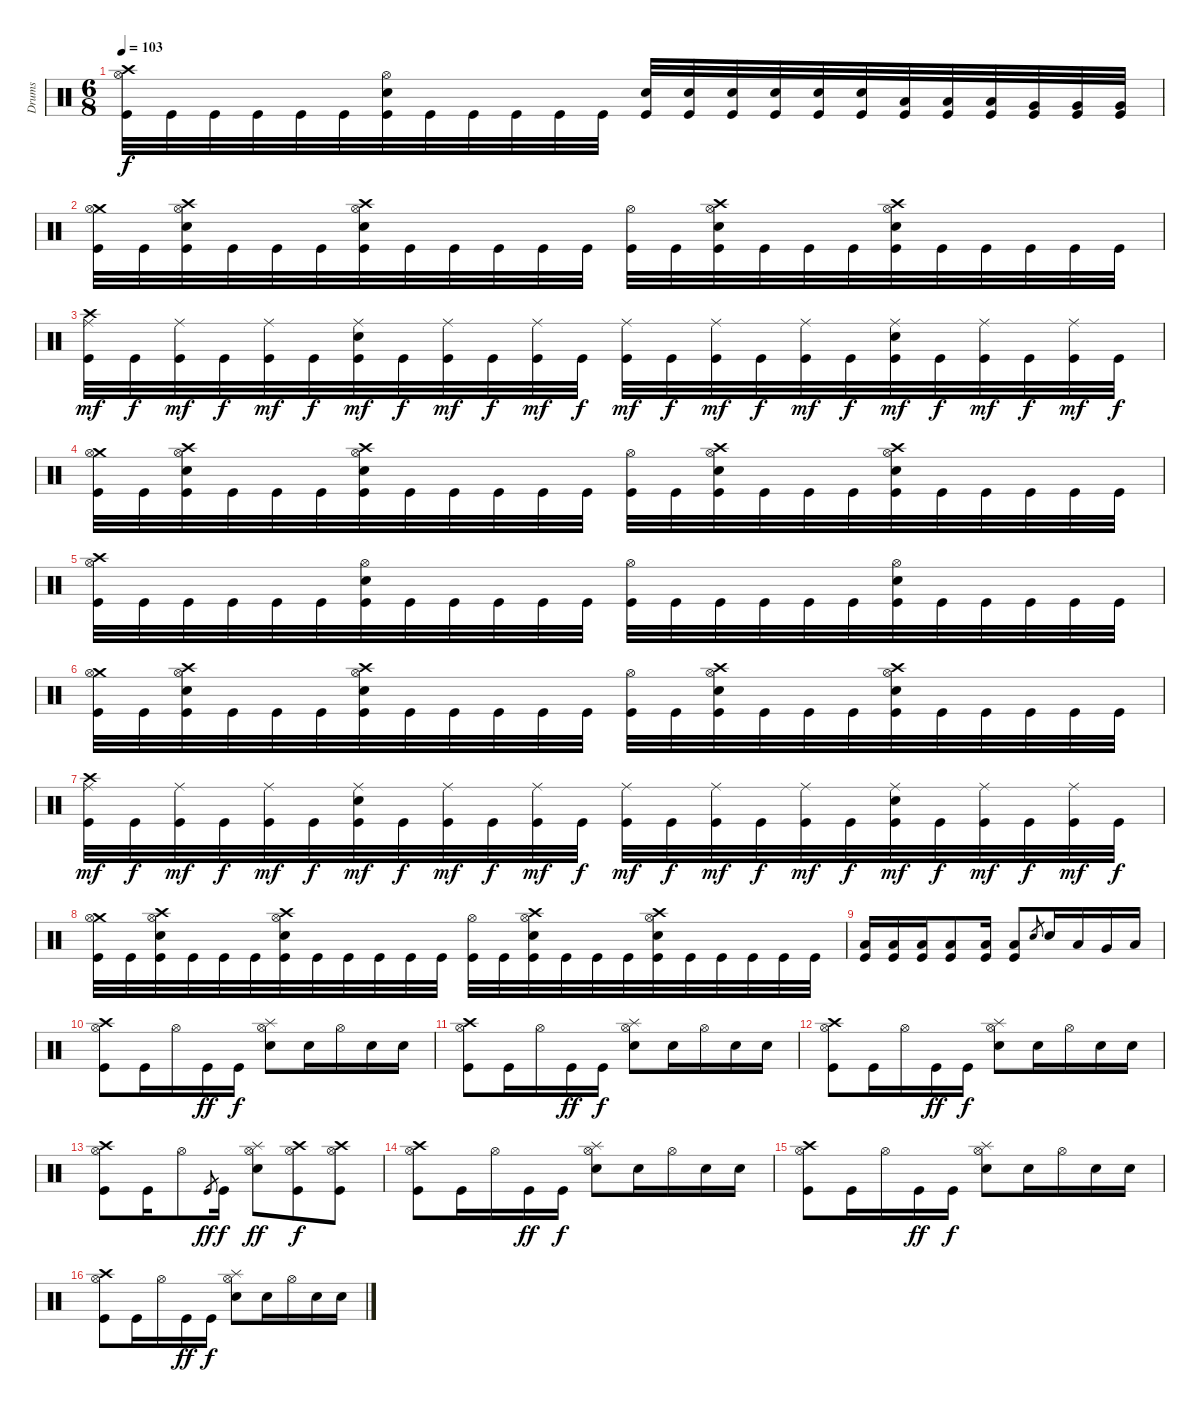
\track ("Drums" "Drums") {instrument percussion}
\staff {score}
\articulation defaults
\ts (6 8)
\tempo 103
\clef neutral
\ks c
("Crash high (hit)" "Hi-Hat (open)" "Kick (hit)").32{dy f} "Kick (hit)".32 "Kick (hit)".32 "Kick (hit)".32 "Kick (hit)".32 "Kick (hit)".32 ("Hi-Hat (open)" "Electric Snare (hit)" "Kick (hit)").32 "Kick (hit)".32 "Kick (hit)".32 "Kick (hit)".32 "Kick (hit)".32 "Kick (hit)".32 ("Electric Snare (hit)" "Kick (hit)").32 ("Electric Snare (hit)" "Kick (hit)").32 ("Electric Snare (hit)" "Kick (hit)").32 ("Electric Snare (hit)" "Kick (hit)").32 ("Electric Snare (hit)" "Kick (hit)").32 ("Electric Snare (hit)" "Kick (hit)").32 ("Low Tom (hit)" "Kick (hit)").32 ("Low Tom (hit)" "Kick (hit)").32 ("Low Tom (hit)" "Kick (hit)").32 ("Very Low Tom (hit)" "Kick (hit)").32 ("Very Low Tom (hit)" "Kick (hit)").32 ("Very Low Tom (hit)" "Kick (hit)").32 |
("Crash medium (hit)" "Hi-Hat (open)" "Kick (hit)").32 "Kick (hit)".32 ("Crash high (hit)" "Hi-Hat (open)" "Electric Snare (hit)" "Kick (hit)").32 "Kick (hit)".32 "Kick (hit)".32 "Kick (hit)".32 ("Crash high (hit)" "Hi-Hat (open)" "Electric Snare (hit)" "Kick (hit)").32 "Kick (hit)".32 "Kick (hit)".32 "Kick (hit)".32 "Kick (hit)".32 "Kick (hit)".32 ("Hi-Hat (open)" "Kick (hit)").32 "Kick (hit)".32 ("Crash high (hit)" "Hi-Hat (open)" "Electric Snare (hit)" "Kick (hit)").32 "Kick (hit)".32 "Kick (hit)".32 "Kick (hit)".32 ("Crash high (hit)" "Hi-Hat (open)" "Electric Snare (hit)" "Kick (hit)").32 "Kick (hit)".32 "Kick (hit)".32 "Kick (hit)".32 "Kick (hit)".32 "Kick (hit)".32 |
("Crash high (hit)" "Ride (middle)" "Kick (hit)").32{dy mf} "Kick (hit)".32{dy f} ("Ride (middle)" "Kick (hit)").32{dy mf} "Kick (hit)".32{dy f} ("Ride (middle)" "Kick (hit)").32{dy mf} "Kick (hit)".32{dy f} ("Ride (middle)" "Electric Snare (hit)" "Kick (hit)").32{dy mf} "Kick (hit)".32{dy f} ("Ride (middle)" "Kick (hit)").32{dy mf} "Kick (hit)".32{dy f} ("Ride (middle)" "Kick (hit)").32{dy mf} "Kick (hit)".32{dy f} ("Ride (middle)" "Kick (hit)").32{dy mf} "Kick (hit)".32{dy f} ("Ride (middle)" "Kick (hit)").32{dy mf} "Kick (hit)".32{dy f} ("Ride (middle)" "Kick (hit)").32{dy mf} "Kick (hit)".32{dy f} ("Ride (middle)" "Electric Snare (hit)" "Kick (hit)").32{dy mf} "Kick (hit)".32{dy f} ("Ride (middle)" "Kick (hit)").32{dy mf} "Kick (hit)".32{dy f} ("Ride (middle)" "Kick (hit)").32{dy mf} "Kick (hit)".32{dy f} |
("Crash medium (hit)" "Hi-Hat (open)" "Kick (hit)").32 "Kick (hit)".32 ("Crash high (hit)" "Hi-Hat (open)" "Electric Snare (hit)" "Kick (hit)").32 "Kick (hit)".32 "Kick (hit)".32 "Kick (hit)".32 ("Crash high (hit)" "Hi-Hat (open)" "Electric Snare (hit)" "Kick (hit)").32 "Kick (hit)".32 "Kick (hit)".32 "Kick (hit)".32 "Kick (hit)".32 "Kick (hit)".32 ("Hi-Hat (open)" "Kick (hit)").32 "Kick (hit)".32 ("Crash high (hit)" "Hi-Hat (open)" "Electric Snare (hit)" "Kick (hit)").32 "Kick (hit)".32 "Kick (hit)".32 "Kick (hit)".32 ("Crash high (hit)" "Hi-Hat (open)" "Electric Snare (hit)" "Kick (hit)").32 "Kick (hit)".32 "Kick (hit)".32 "Kick (hit)".32 "Kick (hit)".32 "Kick (hit)".32 |
("Crash high (hit)" "Hi-Hat (open)" "Kick (hit)").32 "Kick (hit)".32 "Kick (hit)".32 "Kick (hit)".32 "Kick (hit)".32 "Kick (hit)".32 ("Hi-Hat (open)" "Electric Snare (hit)" "Kick (hit)").32 "Kick (hit)".32 "Kick (hit)".32 "Kick (hit)".32 "Kick (hit)".32 "Kick (hit)".32 ("Hi-Hat (open)" "Kick (hit)").32 "Kick (hit)".32 "Kick (hit)".32 "Kick (hit)".32 "Kick (hit)".32 "Kick (hit)".32 ("Hi-Hat (open)" "Electric Snare (hit)" "Kick (hit)").32 "Kick (hit)".32 "Kick (hit)".32 "Kick (hit)".32 "Kick (hit)".32 "Kick (hit)".32 |
("Crash medium (hit)" "Hi-Hat (open)" "Kick (hit)").32 "Kick (hit)".32 ("Crash high (hit)" "Hi-Hat (open)" "Electric Snare (hit)" "Kick (hit)").32 "Kick (hit)".32 "Kick (hit)".32 "Kick (hit)".32 ("Crash high (hit)" "Hi-Hat (open)" "Electric Snare (hit)" "Kick (hit)").32 "Kick (hit)".32 "Kick (hit)".32 "Kick (hit)".32 "Kick (hit)".32 "Kick (hit)".32 ("Hi-Hat (open)" "Kick (hit)").32 "Kick (hit)".32 ("Crash high (hit)" "Hi-Hat (open)" "Electric Snare (hit)" "Kick (hit)").32 "Kick (hit)".32 "Kick (hit)".32 "Kick (hit)".32 ("Crash high (hit)" "Hi-Hat (open)" "Electric Snare (hit)" "Kick (hit)").32 "Kick (hit)".32 "Kick (hit)".32 "Kick (hit)".32 "Kick (hit)".32 "Kick (hit)".32 |
("Crash high (hit)" "Ride (middle)" "Kick (hit)").32{dy mf} "Kick (hit)".32{dy f} ("Ride (middle)" "Kick (hit)").32{dy mf} "Kick (hit)".32{dy f} ("Ride (middle)" "Kick (hit)").32{dy mf} "Kick (hit)".32{dy f} ("Ride (middle)" "Electric Snare (hit)" "Kick (hit)").32{dy mf} "Kick (hit)".32{dy f} ("Ride (middle)" "Kick (hit)").32{dy mf} "Kick (hit)".32{dy f} ("Ride (middle)" "Kick (hit)").32{dy mf} "Kick (hit)".32{dy f} ("Ride (middle)" "Kick (hit)").32{dy mf} "Kick (hit)".32{dy f} ("Ride (middle)" "Kick (hit)").32{dy mf} "Kick (hit)".32{dy f} ("Ride (middle)" "Kick (hit)").32{dy mf} "Kick (hit)".32{dy f} ("Ride (middle)" "Electric Snare (hit)" "Kick (hit)").32{dy mf} "Kick (hit)".32{dy f} ("Ride (middle)" "Kick (hit)").32{dy mf} "Kick (hit)".32{dy f} ("Ride (middle)" "Kick (hit)").32{dy mf} "Kick (hit)".32{dy f} |
("Crash medium (hit)" "Hi-Hat (open)" "Kick (hit)").32 "Kick (hit)".32 ("Crash high (hit)" "Hi-Hat (open)" "Electric Snare (hit)" "Kick (hit)").32 "Kick (hit)".32 "Kick (hit)".32 "Kick (hit)".32 ("Crash high (hit)" "Hi-Hat (open)" "Electric Snare (hit)" "Kick (hit)").32 "Kick (hit)".32 "Kick (hit)".32 "Kick (hit)".32 "Kick (hit)".32 "Kick (hit)".32 ("Hi-Hat (open)" "Kick (hit)").32 "Kick (hit)".32 ("Crash high (hit)" "Hi-Hat (open)" "Electric Snare (hit)" "Kick (hit)").32 "Kick (hit)".32 "Kick (hit)".32 "Kick (hit)".32 ("Crash high (hit)" "Hi-Hat (open)" "Electric Snare (hit)" "Kick (hit)").32 "Kick (hit)".32 "Kick (hit)".32 "Kick (hit)".32 "Kick (hit)".32 "Kick (hit)".32 |
("Low Floor Tom (hit)" "Kick (hit)").16 ("Low Floor Tom (hit)" "Kick (hit)").16 ("Low Floor Tom (hit)" "Kick (hit)").16 ("Low Floor Tom (hit)" "Kick (hit)").8 ("Low Floor Tom (hit)" "Kick (hit)").16 ("Low Floor Tom (hit)" "Kick (hit)").8 "Electric Snare (hit)".8{gr} "Electric Snare (hit)".16 "Low Tom (hit)".16 "Very Low Tom (hit)".16 "Low Floor Tom (hit)".16 |
("Crash high (hit)" "Hi-Hat (open)" "Kick (hit)").8 "Kick (hit)".16 "Hi-Hat (open)".16 "Kick (hit)".16{dy ff} "Kick (hit)".16{dy f} ("Splash (hit)" "Hi-Hat (open)" "Electric Snare (hit)").8 "Electric Snare (hit)".16 "Hi-Hat (open)".16 "Electric Snare (hit)".16 "Electric Snare (hit)".16 |
("Crash high (hit)" "Hi-Hat (open)" "Kick (hit)").8 "Kick (hit)".16 "Hi-Hat (open)".16 "Kick (hit)".16{dy ff} "Kick (hit)".16{dy f} ("Splash (hit)" "Hi-Hat (open)" "Electric Snare (hit)").8 "Electric Snare (hit)".16 "Hi-Hat (open)".16 "Electric Snare (hit)".16 "Electric Snare (hit)".16 |
("Crash high (hit)" "Hi-Hat (open)" "Kick (hit)").8 "Kick (hit)".16 "Hi-Hat (open)".16 "Kick (hit)".16{dy ff} "Kick (hit)".16{dy f} ("Splash (hit)" "Hi-Hat (open)" "Electric Snare (hit)").8 "Electric Snare (hit)".16 "Hi-Hat (open)".16 "Electric Snare (hit)".16 "Electric Snare (hit)".16 |
("Crash high (hit)" "Hi-Hat (open)" "Kick (hit)").8 "Kick (hit)".16 "Hi-Hat (open)".8 "Kick (hit)".8{gr dy ff} "Kick (hit)".16{dy f} ("Splash (hit)" "Hi-Hat (open)" "Electric Snare (hit)").8{dy ff} ("Crash high (hit)" "Hi-Hat (open)" "Kick (hit)").8{dy f} ("Crash high (hit)" "Hi-Hat (open)" "Kick (hit)").8 |
("Crash high (hit)" "Hi-Hat (open)" "Kick (hit)").8 "Kick (hit)".16 "Hi-Hat (open)".16 "Kick (hit)".16{dy ff} "Kick (hit)".16{dy f} ("Splash (hit)" "Hi-Hat (open)" "Electric Snare (hit)").8 "Electric Snare (hit)".16 "Hi-Hat (open)".16 "Electric Snare (hit)".16 "Electric Snare (hit)".16 |
("Crash high (hit)" "Hi-Hat (open)" "Kick (hit)").8 "Kick (hit)".16 "Hi-Hat (open)".16 "Kick (hit)".16{dy ff} "Kick (hit)".16{dy f} ("Splash (hit)" "Hi-Hat (open)" "Electric Snare (hit)").8 "Electric Snare (hit)".16 "Hi-Hat (open)".16 "Electric Snare (hit)".16 "Electric Snare (hit)".16 |
("Crash high (hit)" "Hi-Hat (open)" "Kick (hit)").8 "Kick (hit)".16 "Hi-Hat (open)".16 "Kick (hit)".16{dy ff} "Kick (hit)".16{dy f} ("Splash (hit)" "Hi-Hat (open)" "Electric Snare (hit)").8 "Electric Snare (hit)".16 "Hi-Hat (open)".16 "Electric Snare (hit)".16 "Electric Snare (hit)".16
